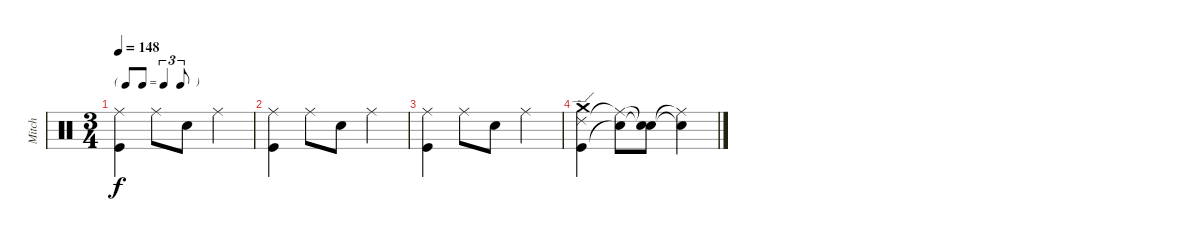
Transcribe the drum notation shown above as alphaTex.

\track ("Mitch" "Mitch") {instrument percussion}
\staff {score}
\articulation defaults
\ts (3 4)
\tf triplet8th
\tempo 148
\clef neutral
\ks c
("Ride (middle)" "Kick (hit)").4{dy f} "Ride (middle)".8 "Snare (hit) 2".8 "Ride (middle)".4 |
("Ride (middle)" "Kick (hit)").4 "Ride (middle)".8 "Snare (hit) 2".8 "Ride (middle)".4 |
("Ride (middle)" "Kick (hit)").4 "Ride (middle)".8 "Snare (hit) 2".8 "Ride (middle)".4 |
("Ride (edge) 2" "Kick (hit)" "Crash medium (hit)").4 ("Ride (middle)"{t} "Snare (hit)"{t}).8 ("Snare (hit) 2"{t} "Snare (hit)"{t}).8 ("Ride (middle)"{t} "Snare (hit)"{t}).4
